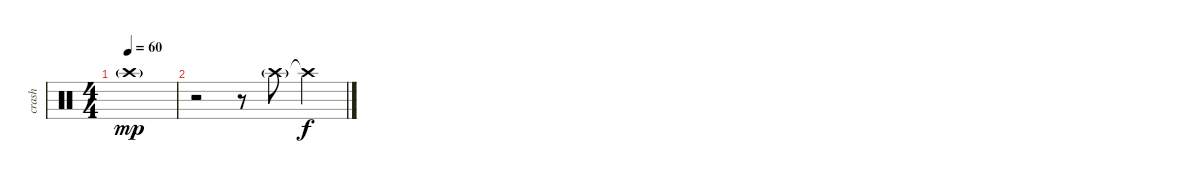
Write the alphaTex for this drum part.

\track ("crash" "crash") {instrument percussion}
\staff {score}
\articulation defaults
\ts (4 4)
\tempo 60
\clef neutral
\ks c "Crash high (hit)"{g}.1{dy mp}
|
r.2 r.8 "Crash high (hit)"{g}.8 "Crash high (hit)"{t}.4{dy f}
